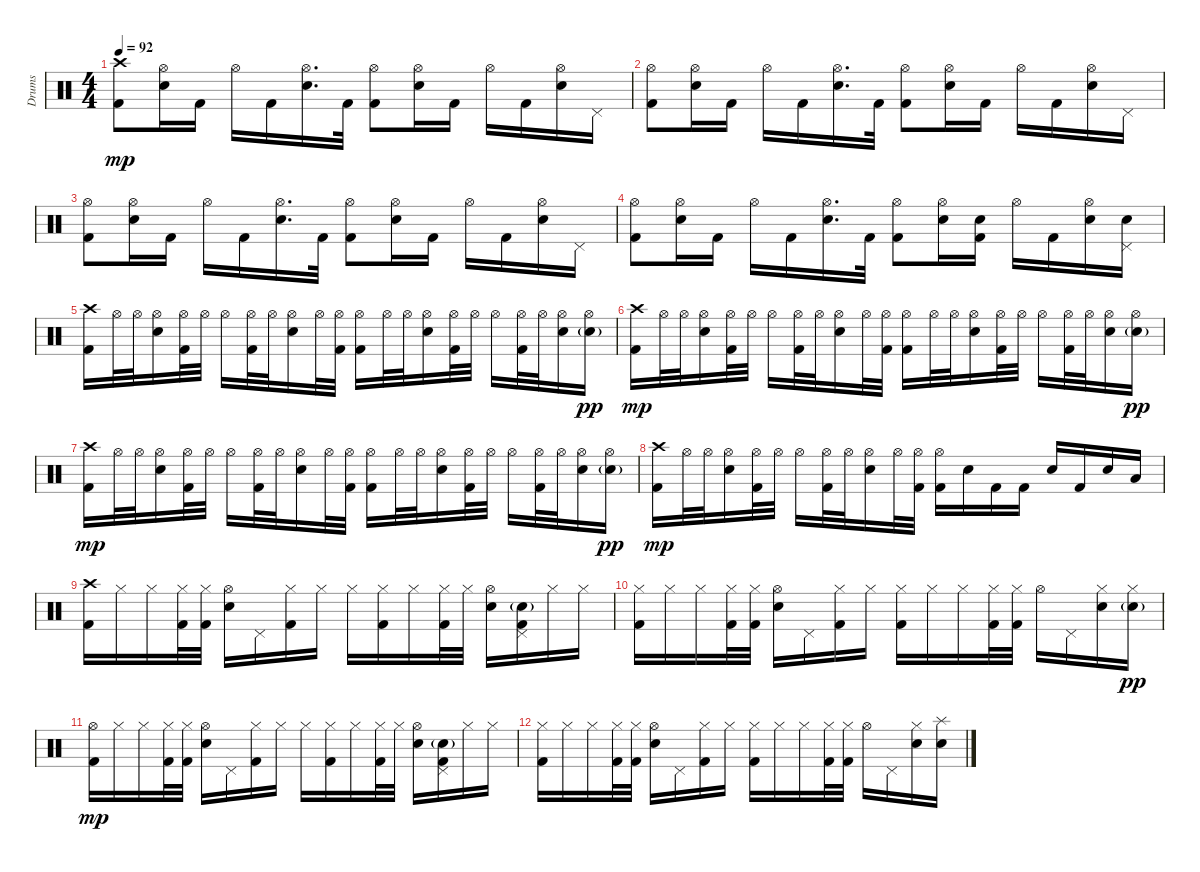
\track ("Drums" "Drums") {instrument percussion}
\staff {score}
\articulation defaults
\ts (4 4)
\tempo 92
\clef neutral
\ks c
("Crash high (hit)" "Kick (hit) 2").8{dy mp} ("Hi-Hat (open)" "Electric Snare (hit)").16 "Kick (hit) 2".16 "Hi-Hat (open)".16 "Kick (hit) 2".16 ("Hi-Hat (open)" "Electric Snare (hit)").16{d} "Kick (hit) 2".32 ("Hi-Hat (open)" "Kick (hit) 2").8 ("Hi-Hat (open)" "Electric Snare (hit)").16 "Kick (hit) 2".16 "Hi-Hat (open)".16 "Kick (hit) 2".16 ("Hi-Hat (open)" "Electric Snare (hit)").16 "Pedal Hi-Hat (hit)".16 |
("Hi-Hat (open)" "Kick (hit) 2").8 ("Hi-Hat (open)" "Electric Snare (hit)").16 "Kick (hit) 2".16 "Hi-Hat (open)".16 "Kick (hit) 2".16 ("Hi-Hat (open)" "Electric Snare (hit)").16{d} "Kick (hit) 2".32 ("Hi-Hat (open)" "Kick (hit) 2").8 ("Hi-Hat (open)" "Electric Snare (hit)").16 "Kick (hit) 2".16 "Hi-Hat (open)".16 "Kick (hit) 2".16 ("Hi-Hat (open)" "Electric Snare (hit)").16 "Pedal Hi-Hat (hit)".16 |
("Hi-Hat (open)" "Kick (hit) 2").8 ("Hi-Hat (open)" "Electric Snare (hit)").16 "Kick (hit) 2".16 "Hi-Hat (open)".16 "Kick (hit) 2".16 ("Hi-Hat (open)" "Electric Snare (hit)").16{d} "Kick (hit) 2".32 ("Hi-Hat (open)" "Kick (hit) 2").8 ("Hi-Hat (open)" "Electric Snare (hit)").16 "Kick (hit) 2".16 "Hi-Hat (open)".16 "Kick (hit) 2".16 ("Hi-Hat (open)" "Electric Snare (hit)").16 "Pedal Hi-Hat (hit)".16 |
("Hi-Hat (open)" "Kick (hit) 2").8 ("Hi-Hat (open)" "Electric Snare (hit)").16 "Kick (hit) 2".16 "Hi-Hat (open)".16 "Kick (hit) 2".16 ("Hi-Hat (open)" "Electric Snare (hit)").16{d} "Kick (hit) 2".32 ("Hi-Hat (open)" "Kick (hit) 2").8 ("Hi-Hat (open)" "Electric Snare (hit)").16 ("Electric Snare (hit)" "Kick (hit) 2").16 "Hi-Hat (open)".16 "Kick (hit) 2".16 ("Hi-Hat (open)" "Electric Snare (hit)").16 ("Pedal Hi-Hat (hit)" "Electric Snare (hit)").16 |
("Crash high (hit)" "Kick (hit) 2").16 "Hi-Hat (open)".32 "Hi-Hat (open)".32 ("Hi-Hat (open)" "Electric Snare (hit)").16 ("Hi-Hat (open)" "Kick (hit) 2").32 "Hi-Hat (open)".32 "Hi-Hat (open)".16 ("Hi-Hat (open)" "Kick (hit) 2").32 "Hi-Hat (open)".32 ("Hi-Hat (open)" "Electric Snare (hit)").16 "Hi-Hat (open)".32 ("Hi-Hat (open)" "Kick (hit) 2").32 ("Hi-Hat (open)" "Kick (hit) 2").16 "Hi-Hat (open)".32 "Hi-Hat (open)".32 ("Hi-Hat (open)" "Electric Snare (hit)").16 ("Hi-Hat (open)" "Kick (hit) 2").32 "Hi-Hat (open)".32 "Hi-Hat (open)".16 ("Hi-Hat (open)" "Kick (hit) 2").32 "Hi-Hat (open)".32 ("Hi-Hat (open)" "Electric Snare (hit)").16 ("Hi-Hat (open)" "Electric Snare (hit)"{g}).16{dy pp} |
("Crash high (hit)" "Kick (hit) 2").16{dy mp} "Hi-Hat (open)".32 "Hi-Hat (open)".32 ("Hi-Hat (open)" "Electric Snare (hit)").16 ("Hi-Hat (open)" "Kick (hit) 2").32 "Hi-Hat (open)".32 "Hi-Hat (open)".16 ("Hi-Hat (open)" "Kick (hit) 2").32 "Hi-Hat (open)".32 ("Hi-Hat (open)" "Electric Snare (hit)").16 "Hi-Hat (open)".32 ("Hi-Hat (open)" "Kick (hit) 2").32 ("Hi-Hat (open)" "Kick (hit) 2").16 "Hi-Hat (open)".32 "Hi-Hat (open)".32 ("Hi-Hat (open)" "Electric Snare (hit)").16 ("Hi-Hat (open)" "Kick (hit) 2").32 "Hi-Hat (open)".32 "Hi-Hat (open)".16 ("Hi-Hat (open)" "Kick (hit) 2").32 "Hi-Hat (open)".32 ("Hi-Hat (open)" "Electric Snare (hit)").16 ("Hi-Hat (open)" "Electric Snare (hit)"{g}).16{dy pp} |
("Crash high (hit)" "Kick (hit) 2").16{dy mp} "Hi-Hat (open)".32 "Hi-Hat (open)".32 ("Hi-Hat (open)" "Electric Snare (hit)").16 ("Hi-Hat (open)" "Kick (hit) 2").32 "Hi-Hat (open)".32 "Hi-Hat (open)".16 ("Hi-Hat (open)" "Kick (hit) 2").32 "Hi-Hat (open)".32 ("Hi-Hat (open)" "Electric Snare (hit)").16 "Hi-Hat (open)".32 ("Hi-Hat (open)" "Kick (hit) 2").32 ("Hi-Hat (open)" "Kick (hit) 2").16 "Hi-Hat (open)".32 "Hi-Hat (open)".32 ("Hi-Hat (open)" "Electric Snare (hit)").16 ("Hi-Hat (open)" "Kick (hit) 2").32 "Hi-Hat (open)".32 "Hi-Hat (open)".16 ("Hi-Hat (open)" "Kick (hit) 2").32 "Hi-Hat (open)".32 ("Hi-Hat (open)" "Electric Snare (hit)").16 ("Hi-Hat (open)" "Electric Snare (hit)"{g}).16{dy pp} |
("Crash high (hit)" "Kick (hit) 2").16{dy mp} "Hi-Hat (open)".32 "Hi-Hat (open)".32 ("Hi-Hat (open)" "Electric Snare (hit)").16 ("Hi-Hat (open)" "Kick (hit) 2").32 "Hi-Hat (open)".32 "Hi-Hat (open)".16 ("Hi-Hat (open)" "Kick (hit) 2").32 "Hi-Hat (open)".32 ("Hi-Hat (open)" "Electric Snare (hit)").16 "Hi-Hat (open)".32 ("Hi-Hat (open)" "Kick (hit) 2").32 ("Hi-Hat (open)" "Kick (hit) 2").16 "Electric Snare (hit)".16 "Kick (hit) 2".16 "Kick (hit) 2".16 "Electric Snare (hit)".16 "Kick (hit) 2".16 "Electric Snare (hit)".16 "Low Floor Tom (hit)".16 |
("Crash high (hit)" "Kick (hit) 2").16 "Hi-Hat (closed)".16 "Hi-Hat (closed)".16 ("Hi-Hat (closed)" "Kick (hit) 2").32 ("Hi-Hat (closed)" "Kick (hit) 2").32 ("Hi-Hat (open)" "Electric Snare (hit)").16 "Pedal Hi-Hat (hit)".16 ("Hi-Hat (closed)" "Kick (hit) 2").16 "Hi-Hat (closed)".16 "Hi-Hat (closed)".16 ("Hi-Hat (closed)" "Kick (hit) 2").16 "Hi-Hat (closed)".16 ("Hi-Hat (closed)" "Kick (hit) 2").32 "Hi-Hat (closed)".32 ("Hi-Hat (open)" "Electric Snare (hit)").16 ("Pedal Hi-Hat (hit)" "Electric Snare (hit)"{g} "Kick (hit) 2").16 "Hi-Hat (closed)".16 "Hi-Hat (closed)".16 |
("Hi-Hat (closed)" "Kick (hit) 2").16 "Hi-Hat (closed)".16 "Hi-Hat (closed)".16 ("Hi-Hat (closed)" "Kick (hit) 2").32 ("Hi-Hat (closed)" "Kick (hit) 2").32 ("Hi-Hat (open)" "Electric Snare (hit)").16 "Pedal Hi-Hat (hit)".16 ("Hi-Hat (closed)" "Kick (hit) 2").16 "Hi-Hat (closed)".16 ("Hi-Hat (closed)" "Kick (hit) 2").16 "Hi-Hat (closed)".16 "Hi-Hat (closed)".16 ("Hi-Hat (closed)" "Kick (hit) 2").32 ("Hi-Hat (closed)" "Kick (hit) 2").32 "Hi-Hat (open)".16 "Pedal Hi-Hat (hit)".16 ("Hi-Hat (closed)" "Electric Snare (hit)").16 ("Hi-Hat (closed)" "Electric Snare (hit)"{g}).16{dy pp} |
("Hi-Hat (open)" "Kick (hit) 2").16{dy mp} "Hi-Hat (closed)".16 "Hi-Hat (closed)".16 ("Hi-Hat (closed)" "Kick (hit) 2").32 ("Hi-Hat (closed)" "Kick (hit) 2").32 ("Hi-Hat (open)" "Electric Snare (hit)").16 "Pedal Hi-Hat (hit)".16 ("Hi-Hat (closed)" "Kick (hit) 2").16 "Hi-Hat (closed)".16 "Hi-Hat (closed)".16 ("Hi-Hat (closed)" "Kick (hit) 2").16 "Hi-Hat (closed)".16 ("Hi-Hat (closed)" "Kick (hit) 2").32 "Hi-Hat (closed)".32 ("Hi-Hat (open)" "Electric Snare (hit)").16 ("Pedal Hi-Hat (hit)" "Electric Snare (hit)"{g} "Kick (hit) 2").16 "Hi-Hat (closed)".16 "Hi-Hat (closed)".16 |
("Hi-Hat (closed)" "Kick (hit) 2").16 "Hi-Hat (closed)".16 "Hi-Hat (closed)".16 ("Hi-Hat (closed)" "Kick (hit) 2").32 ("Hi-Hat (closed)" "Kick (hit) 2").32 ("Hi-Hat (open)" "Electric Snare (hit)").16 "Pedal Hi-Hat (hit)".16 ("Hi-Hat (closed)" "Kick (hit) 2").16 "Hi-Hat (closed)".16 ("Hi-Hat (closed)" "Kick (hit) 2").16 "Hi-Hat (closed)".16 "Hi-Hat (closed)".16 ("Hi-Hat (closed)" "Kick (hit) 2").32 ("Hi-Hat (closed)" "Kick (hit) 2").32 "Hi-Hat (open)".16 "Pedal Hi-Hat (hit)".16 ("Hi-Hat (closed)" "Electric Snare (hit)").16 ("Splash (hit)" "Electric Snare (hit)").16
